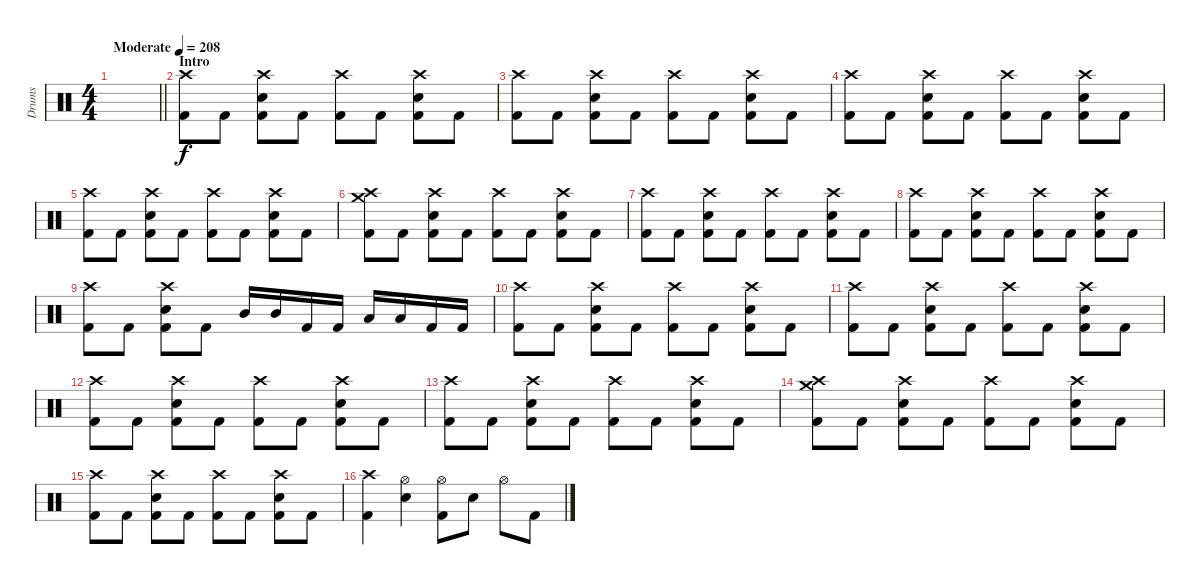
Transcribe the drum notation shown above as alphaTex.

\track ("Drums" "Drums") {instrument percussion}
\staff {score}
\articulation defaults
\ts (4 4)
\tempo (208 "Moderate")
\clef neutral
\barLineRight lightlight
\ks c
|
\section ("" "Intro")
("Crash high (hit)" "Kick (hit) 2").8 "Kick (hit) 2".8 ("Crash high (hit)" "Snare (hit) 2" "Kick (hit) 2").8 "Kick (hit) 2".8 ("Crash high (hit)" "Kick (hit) 2").8 "Kick (hit) 2".8 ("Crash high (hit)" "Snare (hit) 2" "Kick (hit) 2").8 "Kick (hit) 2".8 |
("Crash high (hit)" "Kick (hit) 2").8 "Kick (hit) 2".8 ("Crash high (hit)" "Snare (hit) 2" "Kick (hit) 2").8 "Kick (hit) 2".8 ("Crash high (hit)" "Kick (hit) 2").8 "Kick (hit) 2".8 ("Crash high (hit)" "Snare (hit) 2" "Kick (hit) 2").8 "Kick (hit) 2".8 |
("Crash high (hit)" "Kick (hit) 2").8 "Kick (hit) 2".8 ("Crash high (hit)" "Snare (hit) 2" "Kick (hit) 2").8 "Kick (hit) 2".8 ("Crash high (hit)" "Kick (hit) 2").8 "Kick (hit) 2".8 ("Crash high (hit)" "Snare (hit) 2" "Kick (hit) 2").8 "Kick (hit) 2".8 |
("Crash high (hit)" "Kick (hit) 2").8 "Kick (hit) 2".8 ("Crash high (hit)" "Snare (hit) 2" "Kick (hit) 2").8 "Kick (hit) 2".8 ("Crash high (hit)" "Kick (hit) 2").8 "Kick (hit) 2".8 ("Crash high (hit)" "Snare (hit) 2" "Kick (hit) 2").8 "Kick (hit) 2".8 |
("Crash high (hit)" "Crash medium (hit)" "Kick (hit) 2").8 "Kick (hit) 2".8 ("Crash high (hit)" "Snare (hit) 2" "Kick (hit) 2").8 "Kick (hit) 2".8 ("Crash high (hit)" "Kick (hit) 2").8 "Kick (hit) 2".8 ("Crash high (hit)" "Snare (hit) 2" "Kick (hit) 2").8 "Kick (hit) 2".8 |
("Crash high (hit)" "Kick (hit) 2").8 "Kick (hit) 2".8 ("Crash high (hit)" "Snare (hit) 2" "Kick (hit) 2").8 "Kick (hit) 2".8 ("Crash high (hit)" "Kick (hit) 2").8 "Kick (hit) 2".8 ("Crash high (hit)" "Snare (hit) 2" "Kick (hit) 2").8 "Kick (hit) 2".8 |
("Crash high (hit)" "Kick (hit) 2").8 "Kick (hit) 2".8 ("Crash high (hit)" "Snare (hit) 2" "Kick (hit) 2").8 "Kick (hit) 2".8 ("Crash high (hit)" "Kick (hit) 2").8 "Kick (hit) 2".8 ("Crash high (hit)" "Snare (hit) 2" "Kick (hit) 2").8 "Kick (hit) 2".8 |
("Crash high (hit)" "Kick (hit) 2").8 "Kick (hit) 2".8 ("Crash high (hit)" "Snare (hit) 2" "Kick (hit) 2").8 "Kick (hit) 2".8 "Mid Tom (hit)".16 "Mid Tom (hit)".16 "Kick (hit) 2".16 "Kick (hit) 2".16 "Low Tom (hit)".16 "Low Tom (hit)".16 "Kick (hit) 2".16 "Kick (hit) 2".16 |
("Crash high (hit)" "Kick (hit) 2").8 "Kick (hit) 2".8 ("Crash high (hit)" "Snare (hit) 2" "Kick (hit) 2").8 "Kick (hit) 2".8 ("Crash high (hit)" "Kick (hit) 2").8 "Kick (hit) 2".8 ("Crash high (hit)" "Snare (hit) 2" "Kick (hit) 2").8 "Kick (hit) 2".8 |
("Crash high (hit)" "Kick (hit) 2").8 "Kick (hit) 2".8 ("Crash high (hit)" "Snare (hit) 2" "Kick (hit) 2").8 "Kick (hit) 2".8 ("Crash high (hit)" "Kick (hit) 2").8 "Kick (hit) 2".8 ("Crash high (hit)" "Snare (hit) 2" "Kick (hit) 2").8 "Kick (hit) 2".8 |
("Crash high (hit)" "Kick (hit) 2").8 "Kick (hit) 2".8 ("Crash high (hit)" "Snare (hit) 2" "Kick (hit) 2").8 "Kick (hit) 2".8 ("Crash high (hit)" "Kick (hit) 2").8 "Kick (hit) 2".8 ("Crash high (hit)" "Snare (hit) 2" "Kick (hit) 2").8 "Kick (hit) 2".8 |
("Crash high (hit)" "Kick (hit) 2").8 "Kick (hit) 2".8 ("Crash high (hit)" "Snare (hit) 2" "Kick (hit) 2").8 "Kick (hit) 2".8 ("Crash high (hit)" "Kick (hit) 2").8 "Kick (hit) 2".8 ("Crash high (hit)" "Snare (hit) 2" "Kick (hit) 2").8 "Kick (hit) 2".8 |
("Crash high (hit)" "Crash medium (hit)" "Kick (hit) 2").8 "Kick (hit) 2".8 ("Crash high (hit)" "Snare (hit) 2" "Kick (hit) 2").8 "Kick (hit) 2".8 ("Crash high (hit)" "Kick (hit) 2").8 "Kick (hit) 2".8 ("Crash high (hit)" "Snare (hit) 2" "Kick (hit) 2").8 "Kick (hit) 2".8 |
("Crash high (hit)" "Kick (hit) 2").8 "Kick (hit) 2".8 ("Crash high (hit)" "Snare (hit) 2" "Kick (hit) 2").8 "Kick (hit) 2".8 ("Crash high (hit)" "Kick (hit) 2").8 "Kick (hit) 2".8 ("Crash high (hit)" "Snare (hit) 2" "Kick (hit) 2").8 "Kick (hit) 2".8 |
("Crash high (hit)" "Kick (hit) 2").4 ("Hi-Hat (open)" "Snare (hit) 2").4 ("Hi-Hat (open)" "Kick (hit) 2").8 "Snare (hit) 2".8 "Hi-Hat (open)".8 "Kick (hit) 2".8
